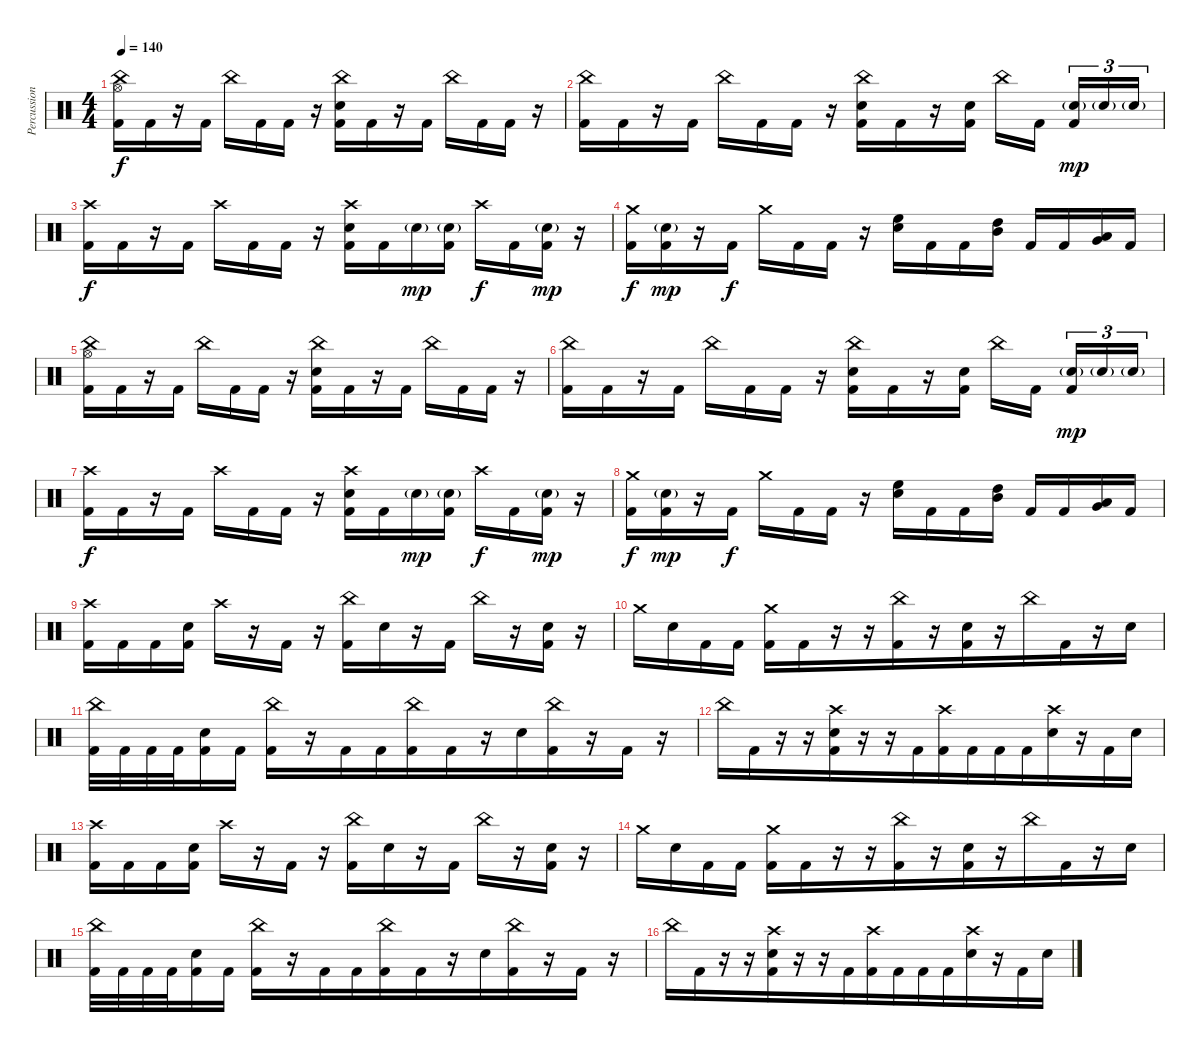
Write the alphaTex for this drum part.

\track ("Percussion" "Percussion") {instrument percussion}
\staff {score}
\articulation defaults
\ts (4 4)
\tempo 140
\clef neutral
\ks c
("Hi-Hat (open)" "China (hit)" "Kick (hit) 2").16{dy f} "Kick (hit) 2".16 r.16 "Kick (hit) 2".16 "China (hit)".16 "Kick (hit) 2".16 "Kick (hit) 2".16 r.16 ("China (hit)" "Electric Snare (hit)" "Kick (hit) 2").16 "Kick (hit) 2".16 r.16 "Kick (hit) 2".16 "China (hit)".16 "Kick (hit) 2".16 "Kick (hit) 2".16 r.16 |
("China (hit)" "Kick (hit) 2").16 "Kick (hit) 2".16 r.16 "Kick (hit) 2".16 "China (hit)".16 "Kick (hit) 2".16 "Kick (hit) 2".16 r.16 ("China (hit)" "Electric Snare (hit)" "Kick (hit) 2").16 "Kick (hit) 2".16 r.16 ("Electric Snare (hit)" "Kick (hit) 2").16 "China (hit)".16 "Kick (hit) 2".16{beam splitsecondary} ("Electric Snare (hit)"{g} "Kick (hit) 2").16{tu (3 2) dy mp} "Electric Snare (hit)"{g}.16{tu (3 2)} "Electric Snare (hit)"{g}.16{tu (3 2)} |
("Crash high (hit)" "Kick (hit) 2").16{dy f} "Kick (hit) 2".16 r.16 "Kick (hit) 2".16 "Crash high (hit)".16 "Kick (hit) 2".16 "Kick (hit) 2".16 r.16 ("Crash high (hit)" "Electric Snare (hit)" "Kick (hit) 2").16 "Kick (hit) 2".16 "Electric Snare (hit)"{g}.16{dy mp} ("Electric Snare (hit)"{g} "Kick (hit) 2").16 "Crash high (hit)".16{dy f} "Kick (hit) 2".16 ("Electric Snare (hit)"{g} "Kick (hit) 2").16{dy mp} r.16 |
("Crash medium (hit)" "Kick (hit) 2").16{dy f} ("Electric Snare (hit)"{g} "Kick (hit) 2").16{dy mp} r.16 "Kick (hit) 2".16{dy f} "Crash medium (hit)".16 "Kick (hit) 2".16 "Kick (hit) 2".16 r.16 ("Electric Snare (hit)" "High Floor Tom (hit)").16{bu 120} "Kick (hit) 2".16 "Kick (hit) 2".16 ("High Tom (hit)" "Mid Tom (hit)").16{bu 120} "Kick (hit) 2".16 "Kick (hit) 2".16 ("Low Tom (hit)" "Very Low Tom (hit)").16{bu 120} "Kick (hit) 2".16 |
("Hi-Hat (open)" "China (hit)" "Kick (hit) 2").16 "Kick (hit) 2".16 r.16 "Kick (hit) 2".16 "China (hit)".16 "Kick (hit) 2".16 "Kick (hit) 2".16 r.16 ("China (hit)" "Electric Snare (hit)" "Kick (hit) 2").16 "Kick (hit) 2".16 r.16 "Kick (hit) 2".16 "China (hit)".16 "Kick (hit) 2".16 "Kick (hit) 2".16 r.16 |
("China (hit)" "Kick (hit) 2").16 "Kick (hit) 2".16 r.16 "Kick (hit) 2".16 "China (hit)".16 "Kick (hit) 2".16 "Kick (hit) 2".16 r.16 ("China (hit)" "Electric Snare (hit)" "Kick (hit) 2").16 "Kick (hit) 2".16 r.16 ("Electric Snare (hit)" "Kick (hit) 2").16 "China (hit)".16 "Kick (hit) 2".16{beam splitsecondary} ("Electric Snare (hit)"{g} "Kick (hit) 2").16{tu (3 2) dy mp} "Electric Snare (hit)"{g}.16{tu (3 2)} "Electric Snare (hit)"{g}.16{tu (3 2)} |
("Crash high (hit)" "Kick (hit) 2").16{dy f} "Kick (hit) 2".16 r.16 "Kick (hit) 2".16 "Crash high (hit)".16 "Kick (hit) 2".16 "Kick (hit) 2".16 r.16 ("Crash high (hit)" "Electric Snare (hit)" "Kick (hit) 2").16 "Kick (hit) 2".16 "Electric Snare (hit)"{g}.16{dy mp} ("Electric Snare (hit)"{g} "Kick (hit) 2").16 "Crash high (hit)".16{dy f} "Kick (hit) 2".16 ("Electric Snare (hit)"{g} "Kick (hit) 2").16{dy mp} r.16 |
("Crash medium (hit)" "Kick (hit) 2").16{dy f} ("Electric Snare (hit)"{g} "Kick (hit) 2").16{dy mp} r.16 "Kick (hit) 2".16{dy f} "Crash medium (hit)".16 "Kick (hit) 2".16 "Kick (hit) 2".16 r.16 ("Electric Snare (hit)" "High Floor Tom (hit)").16{bu 120} "Kick (hit) 2".16 "Kick (hit) 2".16 ("High Tom (hit)" "Mid Tom (hit)").16{bu 120} "Kick (hit) 2".16 "Kick (hit) 2".16 ("Low Tom (hit)" "Very Low Tom (hit)").16{bu 120} "Kick (hit) 2".16 |
("Crash high (hit)" "Kick (hit) 2").16 "Kick (hit) 2".16{beam merge} "Kick (hit) 2".16{beam merge} ("Electric Snare (hit)" "Kick (hit) 2").16 "Crash high (hit)".16{beam merge} r.16{beam merge} "Kick (hit) 2".16 r.16 ("China (hit)" "Kick (hit) 2").16{beam merge} "Electric Snare (hit)".16 r.16 "Kick (hit) 2".16 "China (hit)".16{beam merge} r.16{beam merge} ("Electric Snare (hit)" "Kick (hit) 2").16{beam merge} r.16 |
"Crash medium (hit)".16 "Electric Snare (hit)".16{beam merge} "Kick (hit) 2".16{beam merge} "Kick (hit) 2".16 ("Crash medium (hit)" "Kick (hit) 2").16{beam merge} "Kick (hit) 2".16{beam merge} r.16 r.16{beam merge} ("China (hit)" "Kick (hit) 2").16 r.16 ("Electric Snare (hit)" "Kick (hit) 2").16{beam merge} r.16 "China (hit)".16 "Kick (hit) 2".16{beam merge} r.16 "Electric Snare (hit)".16 |
("China (hit)" "Kick (hit) 2").32 "Kick (hit) 2".32{beam merge} "Kick (hit) 2".32 "Kick (hit) 2".32{beam merge} ("Electric Snare (hit)" "Kick (hit) 2").16{beam merge} "Kick (hit) 2".16 ("China (hit)" "Kick (hit) 2").16{beam merge} r.16{beam merge} "Kick (hit) 2".16{beam merge} "Kick (hit) 2".16{beam merge} ("China (hit)" "Kick (hit) 2").16{beam merge} "Kick (hit) 2".16{beam merge} r.16{beam merge} "Electric Snare (hit)".16{beam merge} ("China (hit)" "Kick (hit) 2").16 r.16{beam merge} "Kick (hit) 2".16 r.16 |
"China (hit)".16{beam merge} "Kick (hit) 2".16{beam merge} r.16 r.16 ("Crash high (hit)" "Electric Snare (hit)" "Kick (hit) 2").16 r.16{beam merge} r.16 "Kick (hit) 2".16{beam merge} ("Crash high (hit)" "Kick (hit) 2").16{beam merge} "Kick (hit) 2".16 "Kick (hit) 2".16{beam merge} "Kick (hit) 2".16{beam merge} ("Crash high (hit)" "Electric Snare (hit)").16{beam merge} r.16 "Kick (hit) 2".16{beam merge} "Electric Snare (hit)".16 |
("Crash high (hit)" "Kick (hit) 2").16 "Kick (hit) 2".16{beam merge} "Kick (hit) 2".16{beam merge} ("Electric Snare (hit)" "Kick (hit) 2").16 "Crash high (hit)".16{beam merge} r.16{beam merge} "Kick (hit) 2".16 r.16 ("China (hit)" "Kick (hit) 2").16{beam merge} "Electric Snare (hit)".16 r.16 "Kick (hit) 2".16 "China (hit)".16{beam merge} r.16{beam merge} ("Electric Snare (hit)" "Kick (hit) 2").16{beam merge} r.16 |
"Crash medium (hit)".16 "Electric Snare (hit)".16{beam merge} "Kick (hit) 2".16{beam merge} "Kick (hit) 2".16 ("Crash medium (hit)" "Kick (hit) 2").16{beam merge} "Kick (hit) 2".16{beam merge} r.16 r.16{beam merge} ("China (hit)" "Kick (hit) 2").16 r.16 ("Electric Snare (hit)" "Kick (hit) 2").16{beam merge} r.16 "China (hit)".16 "Kick (hit) 2".16{beam merge} r.16 "Electric Snare (hit)".16 |
("China (hit)" "Kick (hit) 2").32 "Kick (hit) 2".32{beam merge} "Kick (hit) 2".32 "Kick (hit) 2".32{beam merge} ("Electric Snare (hit)" "Kick (hit) 2").16{beam merge} "Kick (hit) 2".16 ("China (hit)" "Kick (hit) 2").16{beam merge} r.16{beam merge} "Kick (hit) 2".16{beam merge} "Kick (hit) 2".16{beam merge} ("China (hit)" "Kick (hit) 2").16{beam merge} "Kick (hit) 2".16{beam merge} r.16{beam merge} "Electric Snare (hit)".16{beam merge} ("China (hit)" "Kick (hit) 2").16 r.16{beam merge} "Kick (hit) 2".16 r.16 |
"China (hit)".16{beam merge} "Kick (hit) 2".16{beam merge} r.16 r.16 ("Crash high (hit)" "Electric Snare (hit)" "Kick (hit) 2").16 r.16{beam merge} r.16 "Kick (hit) 2".16{beam merge} ("Crash high (hit)" "Kick (hit) 2").16{beam merge} "Kick (hit) 2".16 "Kick (hit) 2".16{beam merge} "Kick (hit) 2".16{beam merge} ("Crash high (hit)" "Electric Snare (hit)").16{beam merge} r.16 "Kick (hit) 2".16{beam merge} "Electric Snare (hit)".16
